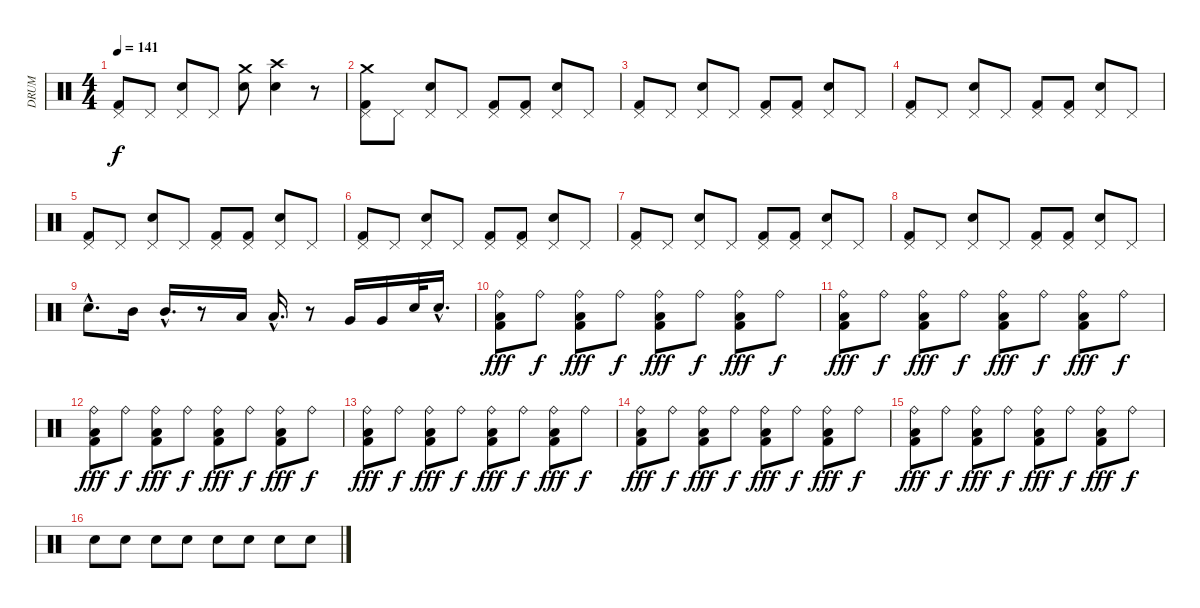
\track ("DRUM" "DRUM") {instrument percussion}
\staff {score}
\articulation defaults
\ts (4 4)
\tempo 141
\clef neutral
\ks c
("Pedal Hi-Hat (hit)" "Kick (hit) 2").8{dy f} "Pedal Hi-Hat (hit)".8 ("Snare (hit) 2" "Pedal Hi-Hat (hit)").8 "Pedal Hi-Hat (hit)".8 ("Crash medium (hit)" "Snare (hit) 2").8 ("Crash high (hit)" "Snare (hit) 2").4 r.8 |
("Crash medium (hit)" "Pedal Hi-Hat (hit)" "Kick (hit) 2").8 "Pedal Hi-Hat (hit)".8 ("Snare (hit) 2" "Pedal Hi-Hat (hit)").8 "Pedal Hi-Hat (hit)".8 ("Pedal Hi-Hat (hit)" "Kick (hit) 2").8 ("Pedal Hi-Hat (hit)" "Kick (hit) 2").8 ("Snare (hit) 2" "Pedal Hi-Hat (hit)").8 "Pedal Hi-Hat (hit)".8 |
("Pedal Hi-Hat (hit)" "Kick (hit) 2").8 "Pedal Hi-Hat (hit)".8 ("Snare (hit) 2" "Pedal Hi-Hat (hit)").8 "Pedal Hi-Hat (hit)".8 ("Pedal Hi-Hat (hit)" "Kick (hit) 2").8 ("Pedal Hi-Hat (hit)" "Kick (hit) 2").8 ("Snare (hit) 2" "Pedal Hi-Hat (hit)").8 "Pedal Hi-Hat (hit)".8 |
("Pedal Hi-Hat (hit)" "Kick (hit) 2").8 "Pedal Hi-Hat (hit)".8 ("Snare (hit) 2" "Pedal Hi-Hat (hit)").8 "Pedal Hi-Hat (hit)".8 ("Pedal Hi-Hat (hit)" "Kick (hit) 2").8 ("Pedal Hi-Hat (hit)" "Kick (hit) 2").8 ("Snare (hit) 2" "Pedal Hi-Hat (hit)").8 "Pedal Hi-Hat (hit)".8 |
("Pedal Hi-Hat (hit)" "Kick (hit) 2").8 "Pedal Hi-Hat (hit)".8 ("Snare (hit) 2" "Pedal Hi-Hat (hit)").8 "Pedal Hi-Hat (hit)".8 ("Pedal Hi-Hat (hit)" "Kick (hit) 2").8 ("Pedal Hi-Hat (hit)" "Kick (hit) 2").8 ("Snare (hit) 2" "Pedal Hi-Hat (hit)").8 "Pedal Hi-Hat (hit)".8 |
("Pedal Hi-Hat (hit)" "Kick (hit) 2").8 "Pedal Hi-Hat (hit)".8 ("Snare (hit) 2" "Pedal Hi-Hat (hit)").8 "Pedal Hi-Hat (hit)".8 ("Pedal Hi-Hat (hit)" "Kick (hit) 2").8 ("Pedal Hi-Hat (hit)" "Kick (hit) 2").8 ("Snare (hit) 2" "Pedal Hi-Hat (hit)").8 "Pedal Hi-Hat (hit)".8 |
("Pedal Hi-Hat (hit)" "Kick (hit) 2").8 "Pedal Hi-Hat (hit)".8 ("Snare (hit) 2" "Pedal Hi-Hat (hit)").8 "Pedal Hi-Hat (hit)".8 ("Pedal Hi-Hat (hit)" "Kick (hit) 2").8 ("Pedal Hi-Hat (hit)" "Kick (hit) 2").8 ("Snare (hit) 2" "Pedal Hi-Hat (hit)").8 "Pedal Hi-Hat (hit)".8 |
("Pedal Hi-Hat (hit)" "Kick (hit) 2").8 "Pedal Hi-Hat (hit)".8 ("Snare (hit) 2" "Pedal Hi-Hat (hit)").8 "Pedal Hi-Hat (hit)".8 ("Pedal Hi-Hat (hit)" "Kick (hit) 2").8 ("Pedal Hi-Hat (hit)" "Kick (hit) 2").8 ("Snare (hit) 2" "Pedal Hi-Hat (hit)").8 "Pedal Hi-Hat (hit)".8 |
"Snare (hit) 2"{hac}.8{d} "Mid Tom (hit)".16 "Mid Tom (hit)"{hac}.16{d} r.8 "Low Tom (hit)".16 "Low Tom (hit)"{hac}.16{d} r.8 "Very Low Tom (hit)".16 "Very Low Tom (hit)".16 "Electric Snare (hit)".32 "Snare (hit) 2"{hac}.16{d} |
("Ride (bell)" "Kick (hit) 2" "Low Tom (hit)").8{dy fff} "Ride (bell)".8{dy f} ("Ride (bell)" "Kick (hit) 2" "Low Tom (hit)").8{dy fff} "Ride (bell)".8{dy f} ("Ride (bell)" "Kick (hit) 2" "Low Tom (hit)").8{dy fff} "Ride (bell)".8{dy f} ("Ride (bell)" "Kick (hit) 2" "Low Tom (hit)").8{dy fff} "Ride (bell)".8{dy f} |
("Ride (bell)" "Kick (hit) 2" "Low Tom (hit)").8{dy fff} "Ride (bell)".8{dy f} ("Ride (bell)" "Kick (hit) 2" "Low Tom (hit)").8{dy fff} "Ride (bell)".8{dy f} ("Ride (bell)" "Kick (hit) 2" "Low Tom (hit)").8{dy fff} "Ride (bell)".8{dy f} ("Ride (bell)" "Kick (hit) 2" "Low Tom (hit)").8{dy fff} "Ride (bell)".8{dy f} |
("Ride (bell)" "Kick (hit) 2" "Low Tom (hit)").8{dy fff} "Ride (bell)".8{dy f} ("Ride (bell)" "Kick (hit) 2" "Low Tom (hit)").8{dy fff} "Ride (bell)".8{dy f} ("Ride (bell)" "Kick (hit) 2" "Low Tom (hit)").8{dy fff} "Ride (bell)".8{dy f} ("Ride (bell)" "Kick (hit) 2" "Low Tom (hit)").8{dy fff} "Ride (bell)".8{dy f} |
("Ride (bell)" "Kick (hit) 2" "Low Tom (hit)").8{dy fff} "Ride (bell)".8{dy f} ("Ride (bell)" "Kick (hit) 2" "Low Tom (hit)").8{dy fff} "Ride (bell)".8{dy f} ("Ride (bell)" "Kick (hit) 2" "Low Tom (hit)").8{dy fff} "Ride (bell)".8{dy f} ("Ride (bell)" "Kick (hit) 2" "Low Tom (hit)").8{dy fff} "Ride (bell)".8{dy f} |
("Ride (bell)" "Kick (hit) 2" "Low Tom (hit)").8{dy fff} "Ride (bell)".8{dy f} ("Ride (bell)" "Kick (hit) 2" "Low Tom (hit)").8{dy fff} "Ride (bell)".8{dy f} ("Ride (bell)" "Kick (hit) 2" "Low Tom (hit)").8{dy fff} "Ride (bell)".8{dy f} ("Ride (bell)" "Kick (hit) 2" "Low Tom (hit)").8{dy fff} "Ride (bell)".8{dy f} |
("Ride (bell)" "Kick (hit) 2" "Low Tom (hit)").8{dy fff} "Ride (bell)".8{dy f} ("Ride (bell)" "Kick (hit) 2" "Low Tom (hit)").8{dy fff} "Ride (bell)".8{dy f} ("Ride (bell)" "Kick (hit) 2" "Low Tom (hit)").8{dy fff} "Ride (bell)".8{dy f} ("Ride (bell)" "Kick (hit) 2" "Low Tom (hit)").8{dy fff} "Ride (bell)".8{dy f} |
"Snare (hit) 2".8 "Snare (hit) 2".8 "Snare (hit) 2".8 "Snare (hit) 2".8 "Snare (hit) 2".8 "Snare (hit) 2".8 "Snare (hit) 2".8 "Snare (hit) 2".8
